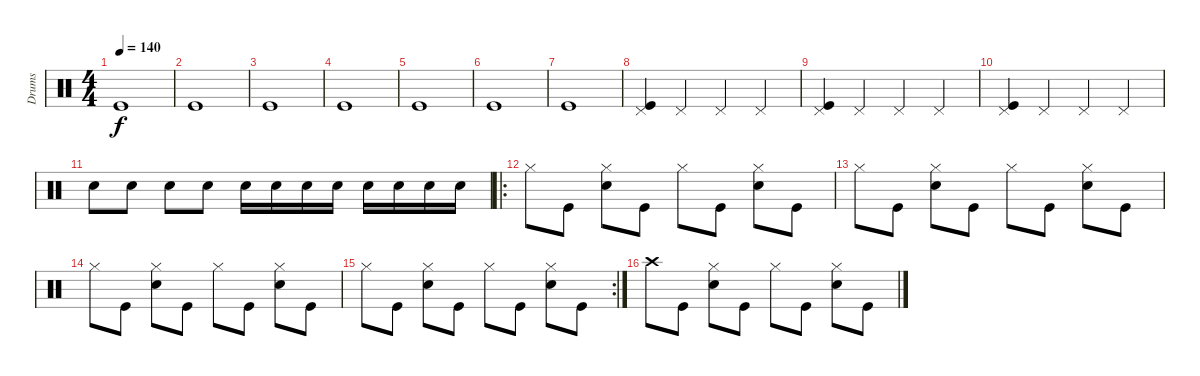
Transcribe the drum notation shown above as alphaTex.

\track ("Drums" "Drums") {instrument percussion}
\staff {score}
\articulation defaults
\ts (4 4)
\tempo 140
\clef neutral
\ks c "Kick (hit)".1{dy f}
|
"Kick (hit)".1 |
"Kick (hit)".1 |
"Kick (hit)".1 |
"Kick (hit)".1 |
"Kick (hit)".1 |
"Kick (hit)".1 |
("Pedal Hi-Hat (hit)" "Kick (hit)").4 "Pedal Hi-Hat (hit)".4 "Pedal Hi-Hat (hit)".4 "Pedal Hi-Hat (hit)".4 |
("Pedal Hi-Hat (hit)" "Kick (hit)").4 "Pedal Hi-Hat (hit)".4 "Pedal Hi-Hat (hit)".4 "Pedal Hi-Hat (hit)".4 |
("Pedal Hi-Hat (hit)" "Kick (hit)").4 "Pedal Hi-Hat (hit)".4 "Pedal Hi-Hat (hit)".4 "Pedal Hi-Hat (hit)".4 |
"Electric Snare (hit)".8 "Electric Snare (hit)".8 "Electric Snare (hit)".8 "Electric Snare (hit)".8 "Electric Snare (hit)".16 "Electric Snare (hit)".16 "Electric Snare (hit)".16 "Electric Snare (hit)".16 "Electric Snare (hit)".16 "Electric Snare (hit)".16 "Electric Snare (hit)".16 "Electric Snare (hit)".16 |
\ro "Hi-Hat (closed)".8 "Kick (hit)".8
("Hi-Hat (closed)" "Electric Snare (hit)").8 "Kick (hit)".8 "Hi-Hat (closed)".8 "Kick (hit)".8 ("Hi-Hat (closed)" "Electric Snare (hit)").8 "Kick (hit)".8 |
"Hi-Hat (closed)".8 "Kick (hit)".8 ("Hi-Hat (closed)" "Electric Snare (hit)").8 "Kick (hit)".8 "Hi-Hat (closed)".8 "Kick (hit)".8 ("Hi-Hat (closed)" "Electric Snare (hit)").8 "Kick (hit)".8 |
"Hi-Hat (closed)".8 "Kick (hit)".8 ("Hi-Hat (closed)" "Electric Snare (hit)").8 "Kick (hit)".8 "Hi-Hat (closed)".8 "Kick (hit)".8 ("Hi-Hat (closed)" "Electric Snare (hit)").8 "Kick (hit)".8 |
\rc 2 "Hi-Hat (closed)".8 "Kick (hit)".8
("Hi-Hat (closed)" "Electric Snare (hit)").8 "Kick (hit)".8 "Hi-Hat (closed)".8 "Kick (hit)".8 ("Hi-Hat (closed)" "Electric Snare (hit)").8 "Kick (hit)".8 |
"Crash high (hit)".8 "Kick (hit)".8 ("Hi-Hat (closed)" "Electric Snare (hit)").8 "Kick (hit)".8 "Hi-Hat (closed)".8 "Kick (hit)".8 ("Hi-Hat (closed)" "Electric Snare (hit)").8 "Kick (hit)".8
